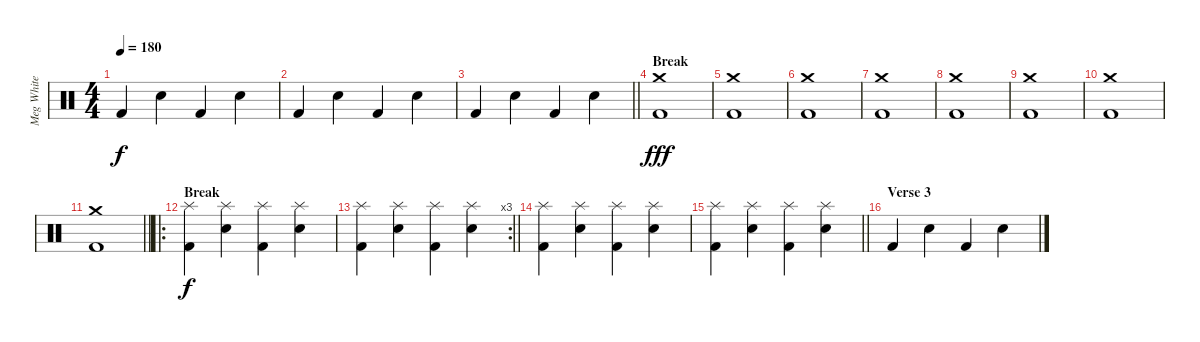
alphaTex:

\track ("Meg White (Drums)" "Meg White ") {instrument percussion}
\staff {score}
\articulation defaults
\ts (4 4)
\tempo 180
\clef neutral
\ks c "Kick (hit) 2".4{dy f} "Snare (hit) 2".4 "Kick (hit) 2".4 "Snare (hit) 2".4
|
"Kick (hit) 2".4 "Snare (hit) 2".4 "Kick (hit) 2".4 "Snare (hit) 2".4 |
\barLineRight lightlight "Kick (hit) 2".4 "Snare (hit) 2".4 "Kick (hit) 2".4 "Snare (hit) 2".4
|
\section ("" "Break")
("Kick (hit) 2" "Crash medium (hit)").1{dy fff} |
("Kick (hit) 2" "Crash medium (hit)").1 |
("Kick (hit) 2" "Crash medium (hit)").1 |
("Kick (hit) 2" "Crash medium (hit)").1 |
("Kick (hit) 2" "Crash medium (hit)").1 |
("Kick (hit) 2" "Crash medium (hit)").1 |
("Kick (hit) 2" "Crash medium (hit)").1 |
\barLineRight lightlight
("Kick (hit) 2" "Crash medium (hit)").1 |
\ro
\section ("" "Break")
("Kick (hit) 2" "Splash (hit)").4{dy f} ("Snare (hit) 2" "Splash (hit)").4 ("Kick (hit) 2" "Splash (hit)").4 ("Snare (hit) 2" "Splash (hit)").4 |
\rc 3
\barLineRight lightlight
("Kick (hit) 2" "Splash (hit)").4 ("Snare (hit) 2" "Splash (hit)").4 ("Kick (hit) 2" "Splash (hit)").4 ("Snare (hit) 2" "Splash (hit)").4 |
("Kick (hit) 2" "Splash (hit)").4 ("Snare (hit) 2" "Splash (hit)").4 ("Kick (hit) 2" "Splash (hit)").4 ("Snare (hit) 2" "Splash (hit)").4 |
\barLineRight lightlight
("Kick (hit) 2" "Splash (hit)").4 ("Snare (hit) 2" "Splash (hit)").4 ("Kick (hit) 2" "Splash (hit)").4 ("Snare (hit) 2" "Splash (hit)").4 |
\section ("" "Verse 3")
"Kick (hit) 2".4 "Snare (hit) 2".4 "Kick (hit) 2".4 "Snare (hit) 2".4
